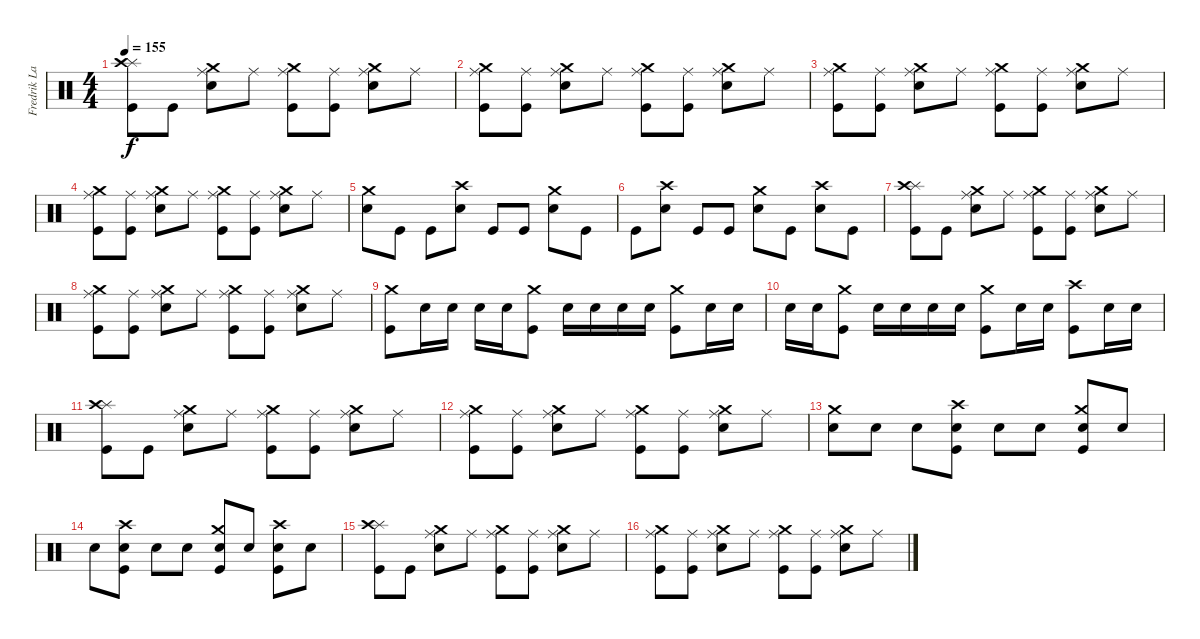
\track ("Fredrik Larzon Drums" "Fredrik La") {instrument percussion}
\staff {score}
\articulation defaults
\ts (4 4)
\tempo 155
\clef neutral
\ks c
("Splash (hit)" "Crash high (hit)" "Kick (hit)").8{dy f} "Kick (hit)".8 ("Ride (middle)" "Crash medium (hit)" "Electric Snare (hit)").8 "Ride (middle)".8 ("Ride (middle)" "Crash medium (hit)" "Kick (hit)").8 ("Ride (middle)" "Kick (hit)").8 ("Ride (middle)" "Crash medium (hit)" "Electric Snare (hit)").8 "Ride (middle)".8 |
("Ride (middle)" "Crash medium (hit)" "Kick (hit)").8 ("Ride (middle)" "Kick (hit)").8 ("Ride (middle)" "Crash medium (hit)" "Electric Snare (hit)").8 "Ride (middle)".8 ("Ride (middle)" "Crash medium (hit)" "Kick (hit)").8 ("Ride (middle)" "Kick (hit)").8 ("Ride (middle)" "Crash medium (hit)" "Electric Snare (hit)").8 "Ride (middle)".8 |
("Ride (middle)" "Crash medium (hit)" "Kick (hit)").8 ("Ride (middle)" "Kick (hit)").8 ("Ride (middle)" "Crash medium (hit)" "Electric Snare (hit)").8 "Ride (middle)".8 ("Ride (middle)" "Crash medium (hit)" "Kick (hit)").8 ("Ride (middle)" "Kick (hit)").8 ("Ride (middle)" "Crash medium (hit)" "Electric Snare (hit)").8 "Ride (middle)".8 |
("Ride (middle)" "Crash medium (hit)" "Kick (hit)").8 ("Ride (middle)" "Kick (hit)").8 ("Ride (middle)" "Crash medium (hit)" "Electric Snare (hit)").8 "Ride (middle)".8 ("Ride (middle)" "Crash medium (hit)" "Kick (hit)").8 ("Ride (middle)" "Kick (hit)").8 ("Ride (middle)" "Crash medium (hit)" "Electric Snare (hit)").8 "Ride (middle)".8 |
("Crash medium (hit)" "Electric Snare (hit)").8 "Kick (hit)".8 "Kick (hit)".8 ("Crash high (hit)" "Electric Snare (hit)").8 "Kick (hit)".8 "Kick (hit)".8 ("Crash medium (hit)" "Electric Snare (hit)").8 "Kick (hit)".8 |
"Kick (hit)".8 ("Crash high (hit)" "Electric Snare (hit)").8 "Kick (hit)".8 "Kick (hit)".8 ("Crash medium (hit)" "Electric Snare (hit)").8 "Kick (hit)".8 ("Crash high (hit)" "Electric Snare (hit)").8 "Kick (hit)".8 |
("Splash (hit)" "Crash high (hit)" "Kick (hit)").8 "Kick (hit)".8 ("Ride (middle)" "Crash medium (hit)" "Electric Snare (hit)").8 "Ride (middle)".8 ("Ride (middle)" "Crash medium (hit)" "Kick (hit)").8 ("Ride (middle)" "Kick (hit)").8 ("Ride (middle)" "Crash medium (hit)" "Electric Snare (hit)").8 "Ride (middle)".8 |
("Ride (middle)" "Crash medium (hit)" "Kick (hit)").8 ("Ride (middle)" "Kick (hit)").8 ("Ride (middle)" "Crash medium (hit)" "Electric Snare (hit)").8 "Ride (middle)".8 ("Ride (middle)" "Crash medium (hit)" "Kick (hit)").8 ("Ride (middle)" "Kick (hit)").8 ("Ride (middle)" "Crash medium (hit)" "Electric Snare (hit)").8 "Ride (middle)".8 |
("Crash medium (hit)" "Kick (hit)").8 "Electric Snare (hit)".16 "Electric Snare (hit)".16 "Electric Snare (hit)".16 "Electric Snare (hit)".16 ("Crash medium (hit)" "Kick (hit)").8 "Electric Snare (hit)".16 "Electric Snare (hit)".16 "Electric Snare (hit)".16 "Electric Snare (hit)".16 ("Crash medium (hit)" "Kick (hit)").8 "Electric Snare (hit)".16 "Electric Snare (hit)".16 |
"Electric Snare (hit)".16 "Electric Snare (hit)".16 ("Crash medium (hit)" "Kick (hit)").8 "Electric Snare (hit)".16 "Electric Snare (hit)".16 "Electric Snare (hit)".16 "Electric Snare (hit)".16 ("Crash medium (hit)" "Kick (hit)").8 "Electric Snare (hit)".16 "Electric Snare (hit)".16 ("Crash high (hit)" "Kick (hit)").8 "Electric Snare (hit)".16 "Electric Snare (hit)".16 |
("Splash (hit)" "Crash high (hit)" "Kick (hit)").8 "Kick (hit)".8 ("Ride (middle)" "Crash medium (hit)" "Electric Snare (hit)").8 "Ride (middle)".8 ("Ride (middle)" "Crash medium (hit)" "Kick (hit)").8 ("Ride (middle)" "Kick (hit)").8 ("Ride (middle)" "Crash medium (hit)" "Electric Snare (hit)").8 "Ride (middle)".8 |
("Ride (middle)" "Crash medium (hit)" "Kick (hit)").8 ("Ride (middle)" "Kick (hit)").8 ("Ride (middle)" "Crash medium (hit)" "Electric Snare (hit)").8 "Ride (middle)".8 ("Ride (middle)" "Crash medium (hit)" "Kick (hit)").8 ("Ride (middle)" "Kick (hit)").8 ("Ride (middle)" "Crash medium (hit)" "Electric Snare (hit)").8 "Ride (middle)".8 |
("Crash medium (hit)" "Electric Snare (hit)").8 "Electric Snare (hit)".8 "Electric Snare (hit)".8 ("Crash high (hit)" "Electric Snare (hit)" "Kick (hit)").8 "Electric Snare (hit)".8 "Electric Snare (hit)".8 ("Crash medium (hit)" "Electric Snare (hit)" "Kick (hit)").8 "Electric Snare (hit)".8 |
"Electric Snare (hit)".8 ("Crash high (hit)" "Electric Snare (hit)" "Kick (hit)").8 "Electric Snare (hit)".8 "Electric Snare (hit)".8 ("Crash medium (hit)" "Electric Snare (hit)" "Kick (hit)").8 "Electric Snare (hit)".8 ("Crash high (hit)" "Electric Snare (hit)" "Kick (hit)").8 "Electric Snare (hit)".8 |
("Splash (hit)" "Crash high (hit)" "Kick (hit)").8 "Kick (hit)".8 ("Ride (middle)" "Crash medium (hit)" "Electric Snare (hit)").8 "Ride (middle)".8 ("Ride (middle)" "Crash medium (hit)" "Kick (hit)").8 ("Ride (middle)" "Kick (hit)").8 ("Ride (middle)" "Crash medium (hit)" "Electric Snare (hit)").8 "Ride (middle)".8 |
("Ride (middle)" "Crash medium (hit)" "Kick (hit)").8 ("Ride (middle)" "Kick (hit)").8 ("Ride (middle)" "Crash medium (hit)" "Electric Snare (hit)").8 "Ride (middle)".8 ("Ride (middle)" "Crash medium (hit)" "Kick (hit)").8 ("Ride (middle)" "Kick (hit)").8 ("Ride (middle)" "Crash medium (hit)" "Electric Snare (hit)").8 "Ride (middle)".8
